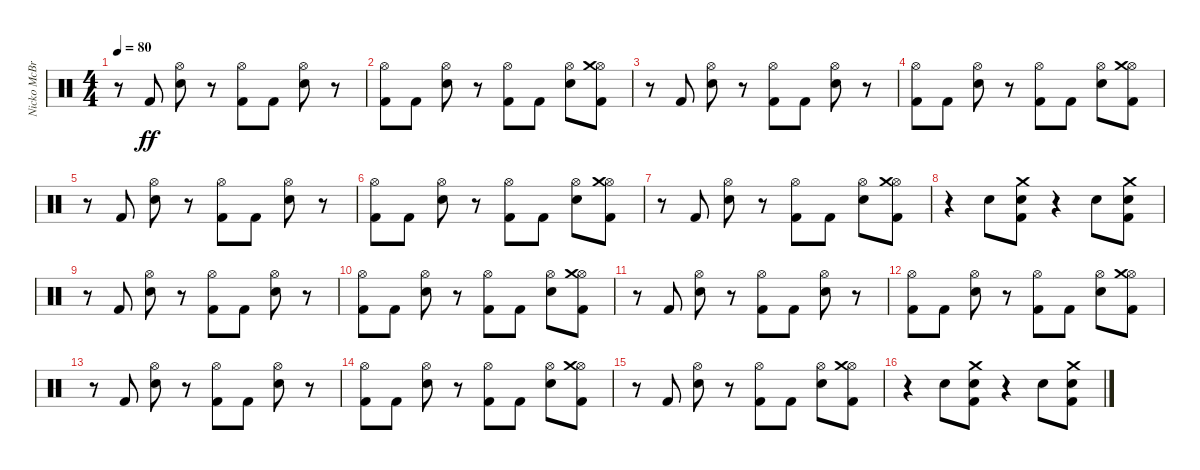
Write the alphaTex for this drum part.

\track ("Nicko McBrain" "Nicko McBr") {instrument percussion}
\staff {score}
\articulation defaults
\ts (4 4)
\tempo 80
\clef neutral
\ks c
r.8{dy ff} "Kick (hit) 2".8 ("Electric Snare (hit)" "Hi-Hat (open)").8 r.8 ("Kick (hit) 2" "Hi-Hat (open)").8 "Kick (hit) 2".8 ("Electric Snare (hit)" "Hi-Hat (open)").8 r.8 |
("Kick (hit) 2" "Hi-Hat (open)").8 "Kick (hit) 2".8 ("Electric Snare (hit)" "Hi-Hat (open)").8 r.8 ("Kick (hit) 2" "Hi-Hat (open)").8 "Kick (hit) 2".8 ("Electric Snare (hit)" "Hi-Hat (open)").8 ("Kick (hit) 2" "Hi-Hat (open)" "Crash medium (hit)").8 |
r.8 "Kick (hit) 2".8 ("Electric Snare (hit)" "Hi-Hat (open)").8 r.8 ("Kick (hit) 2" "Hi-Hat (open)").8 "Kick (hit) 2".8 ("Electric Snare (hit)" "Hi-Hat (open)").8 r.8 |
("Kick (hit) 2" "Hi-Hat (open)").8 "Kick (hit) 2".8 ("Electric Snare (hit)" "Hi-Hat (open)").8 r.8 ("Kick (hit) 2" "Hi-Hat (open)").8 "Kick (hit) 2".8 ("Electric Snare (hit)" "Hi-Hat (open)").8 ("Kick (hit) 2" "Hi-Hat (open)" "Crash medium (hit)").8 |
r.8 "Kick (hit) 2".8 ("Electric Snare (hit)" "Hi-Hat (open)").8 r.8 ("Kick (hit) 2" "Hi-Hat (open)").8 "Kick (hit) 2".8 ("Electric Snare (hit)" "Hi-Hat (open)").8 r.8 |
("Kick (hit) 2" "Hi-Hat (open)").8 "Kick (hit) 2".8 ("Electric Snare (hit)" "Hi-Hat (open)").8 r.8 ("Kick (hit) 2" "Hi-Hat (open)").8 "Kick (hit) 2".8 ("Electric Snare (hit)" "Hi-Hat (open)").8 ("Kick (hit) 2" "Hi-Hat (open)" "Crash medium (hit)").8 |
r.8 "Kick (hit) 2".8 ("Electric Snare (hit)" "Hi-Hat (open)").8 r.8 ("Kick (hit) 2" "Hi-Hat (open)").8 "Kick (hit) 2".8 ("Electric Snare (hit)" "Hi-Hat (open)").8 ("Kick (hit) 2" "Hi-Hat (open)" "Crash medium (hit)").8 |
r.4 "Electric Snare (hit)".8 ("Kick (hit) 2" "Electric Snare (hit)" "Crash medium (hit)").8 r.4 "Electric Snare (hit)".8 ("Kick (hit) 2" "Electric Snare (hit)" "Crash medium (hit)").8 |
r.8 "Kick (hit) 2".8 ("Electric Snare (hit)" "Hi-Hat (open)").8 r.8 ("Kick (hit) 2" "Hi-Hat (open)").8 "Kick (hit) 2".8 ("Electric Snare (hit)" "Hi-Hat (open)").8 r.8 |
("Kick (hit) 2" "Hi-Hat (open)").8 "Kick (hit) 2".8 ("Electric Snare (hit)" "Hi-Hat (open)").8 r.8 ("Kick (hit) 2" "Hi-Hat (open)").8 "Kick (hit) 2".8 ("Electric Snare (hit)" "Hi-Hat (open)").8 ("Kick (hit) 2" "Hi-Hat (open)" "Crash medium (hit)").8 |
r.8 "Kick (hit) 2".8 ("Electric Snare (hit)" "Hi-Hat (open)").8 r.8 ("Kick (hit) 2" "Hi-Hat (open)").8 "Kick (hit) 2".8 ("Electric Snare (hit)" "Hi-Hat (open)").8 r.8 |
("Kick (hit) 2" "Hi-Hat (open)").8 "Kick (hit) 2".8 ("Electric Snare (hit)" "Hi-Hat (open)").8 r.8 ("Kick (hit) 2" "Hi-Hat (open)").8 "Kick (hit) 2".8 ("Electric Snare (hit)" "Hi-Hat (open)").8 ("Kick (hit) 2" "Hi-Hat (open)" "Crash medium (hit)").8 |
r.8 "Kick (hit) 2".8 ("Electric Snare (hit)" "Hi-Hat (open)").8 r.8 ("Kick (hit) 2" "Hi-Hat (open)").8 "Kick (hit) 2".8 ("Electric Snare (hit)" "Hi-Hat (open)").8 r.8 |
("Kick (hit) 2" "Hi-Hat (open)").8 "Kick (hit) 2".8 ("Electric Snare (hit)" "Hi-Hat (open)").8 r.8 ("Kick (hit) 2" "Hi-Hat (open)").8 "Kick (hit) 2".8 ("Electric Snare (hit)" "Hi-Hat (open)").8 ("Kick (hit) 2" "Hi-Hat (open)" "Crash medium (hit)").8 |
r.8 "Kick (hit) 2".8 ("Electric Snare (hit)" "Hi-Hat (open)").8 r.8 ("Kick (hit) 2" "Hi-Hat (open)").8 "Kick (hit) 2".8 ("Electric Snare (hit)" "Hi-Hat (open)").8 ("Kick (hit) 2" "Hi-Hat (open)" "Crash medium (hit)").8 |
r.4 "Electric Snare (hit)".8 ("Kick (hit) 2" "Electric Snare (hit)" "Crash medium (hit)").8 r.4 "Electric Snare (hit)".8 ("Kick (hit) 2" "Electric Snare (hit)" "Crash medium (hit)").8
